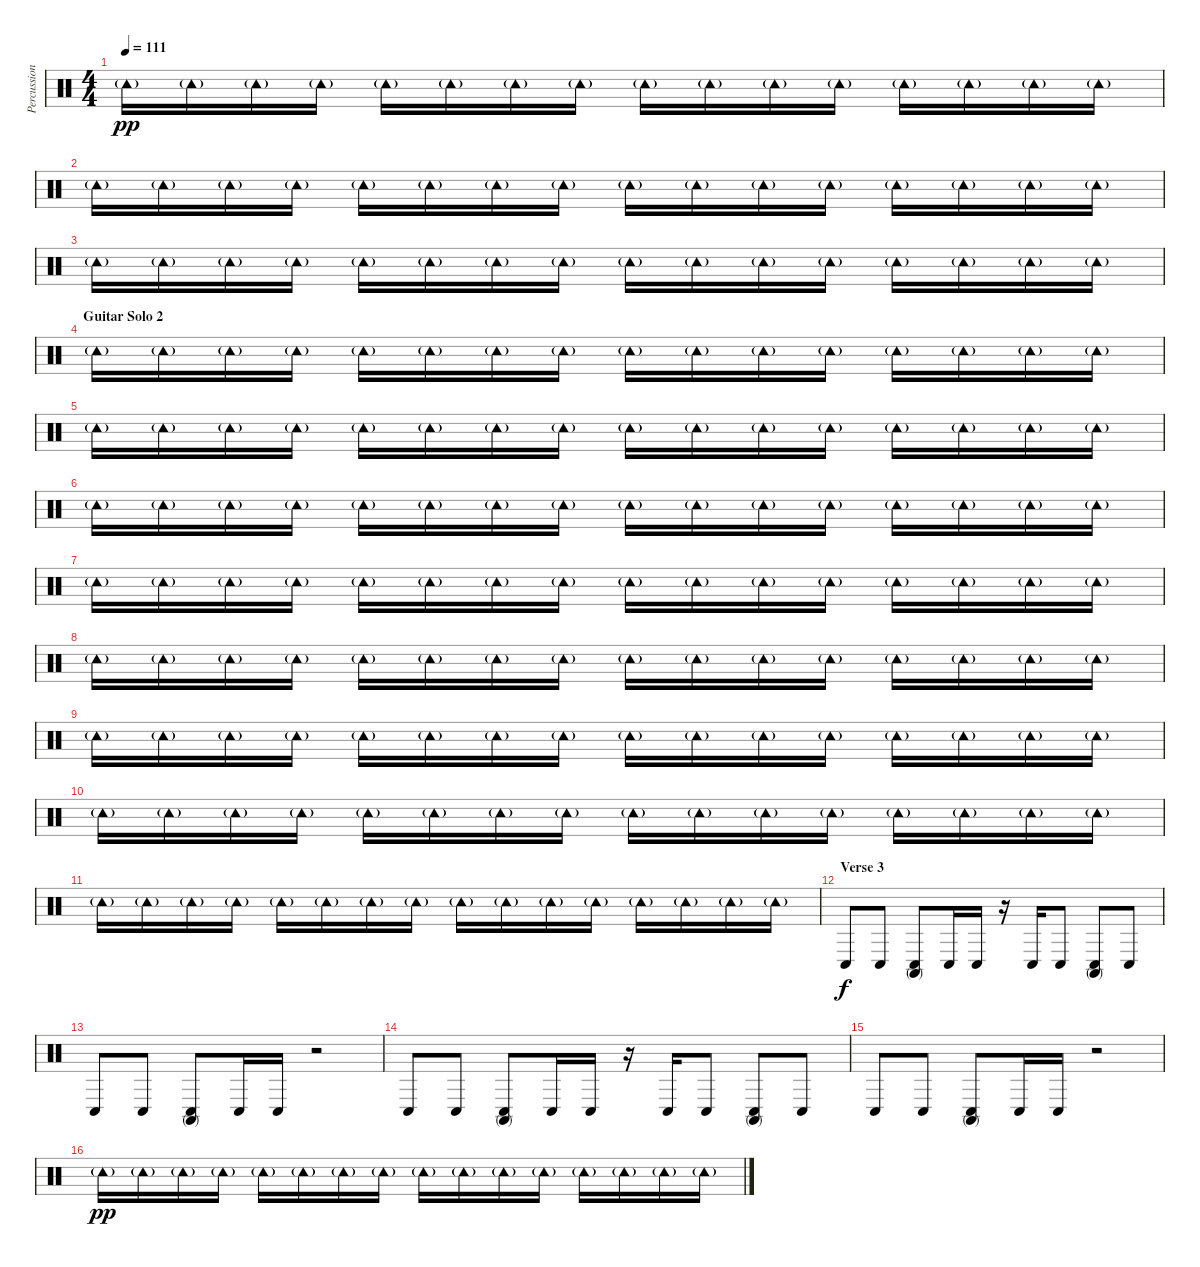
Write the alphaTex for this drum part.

\track ("Percussion" "Percussion") {instrument percussion}
\staff {score}
\articulation defaults
\ts (4 4)
\tempo 111
\clef neutral
\ks c "Tambourine (hit)"{g}.16{dy pp} "Tambourine (hit)"{g}.16 "Tambourine (hit)"{g}.16 "Tambourine (hit)"{g}.16 "Tambourine (hit)"{g}.16 "Tambourine (hit)"{g}.16 "Tambourine (hit)"{g}.16 "Tambourine (hit)"{g}.16 "Tambourine (hit)"{g}.16 "Tambourine (hit)"{g}.16 "Tambourine (hit)"{g}.16 "Tambourine (hit)"{g}.16 "Tambourine (hit)"{g}.16 "Tambourine (hit)"{g}.16 "Tambourine (hit)"{g}.16 "Tambourine (hit)"{g}.16
|
"Tambourine (hit)"{g}.16 "Tambourine (hit)"{g}.16 "Tambourine (hit)"{g}.16 "Tambourine (hit)"{g}.16 "Tambourine (hit)"{g}.16 "Tambourine (hit)"{g}.16 "Tambourine (hit)"{g}.16 "Tambourine (hit)"{g}.16 "Tambourine (hit)"{g}.16 "Tambourine (hit)"{g}.16 "Tambourine (hit)"{g}.16 "Tambourine (hit)"{g}.16 "Tambourine (hit)"{g}.16 "Tambourine (hit)"{g}.16 "Tambourine (hit)"{g}.16 "Tambourine (hit)"{g}.16 |
"Tambourine (hit)"{g}.16 "Tambourine (hit)"{g}.16 "Tambourine (hit)"{g}.16 "Tambourine (hit)"{g}.16 "Tambourine (hit)"{g}.16 "Tambourine (hit)"{g}.16 "Tambourine (hit)"{g}.16 "Tambourine (hit)"{g}.16 "Tambourine (hit)"{g}.16 "Tambourine (hit)"{g}.16 "Tambourine (hit)"{g}.16 "Tambourine (hit)"{g}.16 "Tambourine (hit)"{g}.16 "Tambourine (hit)"{g}.16 "Tambourine (hit)"{g}.16 "Tambourine (hit)"{g}.16 |
\section ("" "Guitar Solo 2")
"Tambourine (hit)"{g}.16 "Tambourine (hit)"{g}.16 "Tambourine (hit)"{g}.16 "Tambourine (hit)"{g}.16 "Tambourine (hit)"{g}.16 "Tambourine (hit)"{g}.16 "Tambourine (hit)"{g}.16 "Tambourine (hit)"{g}.16 "Tambourine (hit)"{g}.16 "Tambourine (hit)"{g}.16 "Tambourine (hit)"{g}.16 "Tambourine (hit)"{g}.16 "Tambourine (hit)"{g}.16 "Tambourine (hit)"{g}.16 "Tambourine (hit)"{g}.16 "Tambourine (hit)"{g}.16 |
"Tambourine (hit)"{g}.16 "Tambourine (hit)"{g}.16 "Tambourine (hit)"{g}.16 "Tambourine (hit)"{g}.16 "Tambourine (hit)"{g}.16 "Tambourine (hit)"{g}.16 "Tambourine (hit)"{g}.16 "Tambourine (hit)"{g}.16 "Tambourine (hit)"{g}.16 "Tambourine (hit)"{g}.16 "Tambourine (hit)"{g}.16 "Tambourine (hit)"{g}.16 "Tambourine (hit)"{g}.16 "Tambourine (hit)"{g}.16 "Tambourine (hit)"{g}.16 "Tambourine (hit)"{g}.16 |
"Tambourine (hit)"{g}.16 "Tambourine (hit)"{g}.16 "Tambourine (hit)"{g}.16 "Tambourine (hit)"{g}.16 "Tambourine (hit)"{g}.16 "Tambourine (hit)"{g}.16 "Tambourine (hit)"{g}.16 "Tambourine (hit)"{g}.16 "Tambourine (hit)"{g}.16 "Tambourine (hit)"{g}.16 "Tambourine (hit)"{g}.16 "Tambourine (hit)"{g}.16 "Tambourine (hit)"{g}.16 "Tambourine (hit)"{g}.16 "Tambourine (hit)"{g}.16 "Tambourine (hit)"{g}.16 |
"Tambourine (hit)"{g}.16 "Tambourine (hit)"{g}.16 "Tambourine (hit)"{g}.16 "Tambourine (hit)"{g}.16 "Tambourine (hit)"{g}.16 "Tambourine (hit)"{g}.16 "Tambourine (hit)"{g}.16 "Tambourine (hit)"{g}.16 "Tambourine (hit)"{g}.16 "Tambourine (hit)"{g}.16 "Tambourine (hit)"{g}.16 "Tambourine (hit)"{g}.16 "Tambourine (hit)"{g}.16 "Tambourine (hit)"{g}.16 "Tambourine (hit)"{g}.16 "Tambourine (hit)"{g}.16 |
"Tambourine (hit)"{g}.16 "Tambourine (hit)"{g}.16 "Tambourine (hit)"{g}.16 "Tambourine (hit)"{g}.16 "Tambourine (hit)"{g}.16 "Tambourine (hit)"{g}.16 "Tambourine (hit)"{g}.16 "Tambourine (hit)"{g}.16 "Tambourine (hit)"{g}.16 "Tambourine (hit)"{g}.16 "Tambourine (hit)"{g}.16 "Tambourine (hit)"{g}.16 "Tambourine (hit)"{g}.16 "Tambourine (hit)"{g}.16 "Tambourine (hit)"{g}.16 "Tambourine (hit)"{g}.16 |
"Tambourine (hit)"{g}.16 "Tambourine (hit)"{g}.16 "Tambourine (hit)"{g}.16 "Tambourine (hit)"{g}.16 "Tambourine (hit)"{g}.16 "Tambourine (hit)"{g}.16 "Tambourine (hit)"{g}.16 "Tambourine (hit)"{g}.16 "Tambourine (hit)"{g}.16 "Tambourine (hit)"{g}.16 "Tambourine (hit)"{g}.16 "Tambourine (hit)"{g}.16 "Tambourine (hit)"{g}.16 "Tambourine (hit)"{g}.16 "Tambourine (hit)"{g}.16 "Tambourine (hit)"{g}.16 |
"Tambourine (hit)"{g}.16 "Tambourine (hit)"{g}.16 "Tambourine (hit)"{g}.16 "Tambourine (hit)"{g}.16 "Tambourine (hit)"{g}.16 "Tambourine (hit)"{g}.16 "Tambourine (hit)"{g}.16 "Tambourine (hit)"{g}.16 "Tambourine (hit)"{g}.16 "Tambourine (hit)"{g}.16 "Tambourine (hit)"{g}.16 "Tambourine (hit)"{g}.16 "Tambourine (hit)"{g}.16 "Tambourine (hit)"{g}.16 "Tambourine (hit)"{g}.16 "Tambourine (hit)"{g}.16 |
"Tambourine (hit)"{g}.16 "Tambourine (hit)"{g}.16 "Tambourine (hit)"{g}.16 "Tambourine (hit)"{g}.16 "Tambourine (hit)"{g}.16 "Tambourine (hit)"{g}.16 "Tambourine (hit)"{g}.16 "Tambourine (hit)"{g}.16 "Tambourine (hit)"{g}.16 "Tambourine (hit)"{g}.16 "Tambourine (hit)"{g}.16 "Tambourine (hit)"{g}.16 "Tambourine (hit)"{g}.16 "Tambourine (hit)"{g}.16 "Tambourine (hit)"{g}.16 "Tambourine (hit)"{g}.16 |
\section ("" "Verse 3")
"Conga low (hit)".8{dy f} "Conga low (hit)".8 ("Conga high (mute)" "Conga low (hit)").8 "Conga low (hit)".16 "Conga low (hit)".16 r.16 "Conga low (hit)".16 "Conga low (hit)".8 ("Conga high (mute)" "Conga low (hit)").8 "Conga low (hit)".8 |
"Conga low (hit)".8 "Conga low (hit)".8 ("Conga high (mute)" "Conga low (hit)").8 "Conga low (hit)".16 "Conga low (hit)".16 r.2 |
"Conga low (hit)".8 "Conga low (hit)".8 ("Conga high (mute)" "Conga low (hit)").8 "Conga low (hit)".16 "Conga low (hit)".16 r.16 "Conga low (hit)".16 "Conga low (hit)".8 ("Conga high (mute)" "Conga low (hit)").8 "Conga low (hit)".8 |
"Conga low (hit)".8 "Conga low (hit)".8 ("Conga high (mute)" "Conga low (hit)").8 "Conga low (hit)".16 "Conga low (hit)".16 r.2 |
"Tambourine (hit)"{g}.16{dy pp} "Tambourine (hit)"{g}.16 "Tambourine (hit)"{g}.16 "Tambourine (hit)"{g}.16 "Tambourine (hit)"{g}.16 "Tambourine (hit)"{g}.16 "Tambourine (hit)"{g}.16 "Tambourine (hit)"{g}.16 "Tambourine (hit)"{g}.16 "Tambourine (hit)"{g}.16 "Tambourine (hit)"{g}.16 "Tambourine (hit)"{g}.16 "Tambourine (hit)"{g}.16 "Tambourine (hit)"{g}.16 "Tambourine (hit)"{g}.16 "Tambourine (hit)"{g}.16
